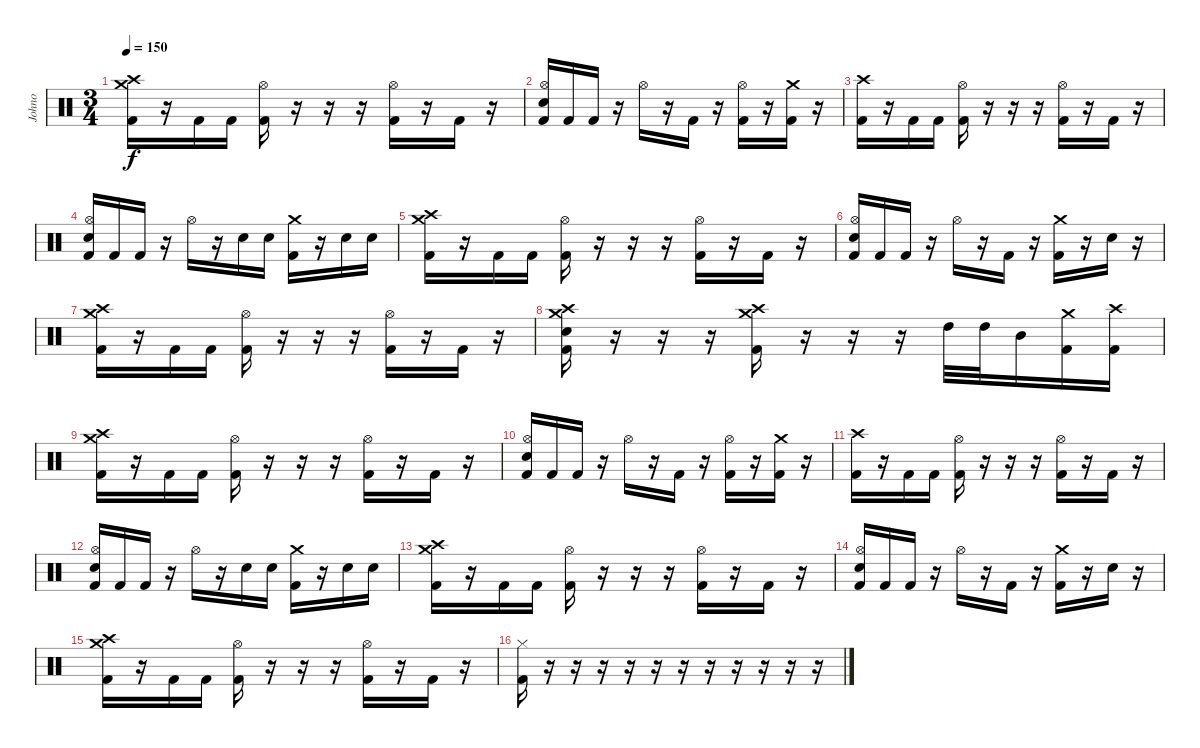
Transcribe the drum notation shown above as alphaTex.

\track ("Johno" "Johno") {instrument percussion}
\staff {score}
\articulation defaults
\ts (3 4)
\tempo 150
\clef neutral
\ks c
("Crash medium (hit)" "Crash high (hit)" "Kick (hit) 2").16{dy f} r.16 "Kick (hit) 2".16 "Kick (hit) 2".16 ("Hi-Hat (open)" "Kick (hit) 2").16 r.16 r.16 r.16 ("Hi-Hat (open)" "Kick (hit) 2").16 r.16 "Kick (hit) 2".16 r.16 |
("Hi-Hat (open)" "Electric Snare (hit)" "Kick (hit) 2").16 "Kick (hit) 2".16 "Kick (hit) 2".16 r.16 "Hi-Hat (open)".16 r.16 "Kick (hit) 2".16 r.16 ("Hi-Hat (open)" "Kick (hit) 2").16 r.16 ("Crash medium (hit)" "Kick (hit) 2").16 r.16 |
("Crash high (hit)" "Kick (hit) 2").16 r.16 "Kick (hit) 2".16 "Kick (hit) 2".16 ("Hi-Hat (open)" "Kick (hit) 2").16 r.16 r.16 r.16 ("Hi-Hat (open)" "Kick (hit) 2").16 r.16 "Kick (hit) 2".16 r.16 |
("Hi-Hat (open)" "Electric Snare (hit)" "Kick (hit) 2").16 "Kick (hit) 2".16 "Kick (hit) 2".16 r.16 "Hi-Hat (open)".16 r.16 "Electric Snare (hit)".16 "Electric Snare (hit)".16 ("Crash medium (hit)" "Kick (hit) 2").16 r.16 "Electric Snare (hit)".16 "Electric Snare (hit)".16 |
("Crash high (hit)" "Crash medium (hit)" "Kick (hit) 2").16 r.16 "Kick (hit) 2".16 "Kick (hit) 2".16 ("Hi-Hat (open)" "Kick (hit) 2").16 r.16 r.16 r.16 ("Hi-Hat (open)" "Kick (hit) 2").16 r.16 "Kick (hit) 2".16 r.16 |
("Hi-Hat (open)" "Electric Snare (hit)" "Kick (hit) 2").16 "Kick (hit) 2".16 "Kick (hit) 2".16 r.16 "Hi-Hat (open)".16 r.16 "Kick (hit) 2".16 r.16 ("Crash medium (hit)" "Kick (hit) 2").16 r.16 "Electric Snare (hit)".16 r.16 |
("Crash medium (hit)" "Crash high (hit)" "Kick (hit) 2").16 r.16 "Kick (hit) 2".16 "Kick (hit) 2".16 ("Hi-Hat (open)" "Kick (hit) 2").16 r.16 r.16 r.16 ("Hi-Hat (open)" "Kick (hit) 2").16 r.16 "Kick (hit) 2".16 r.16 |
("Crash high (hit)" "Crash medium (hit)" "Electric Snare (hit)" "Kick (hit) 2").16 r.16 r.16 r.16 ("Crash high (hit)" "Crash medium (hit)" "Kick (hit) 2").16 r.16 r.16 r.16 "High Tom (hit)".32 "High Tom (hit)".32 "Mid Tom (hit)".16 ("Crash medium (hit)" "Kick (hit) 2").16 ("Crash high (hit)" "Kick (hit) 2").16 |
("Crash medium (hit)" "Crash high (hit)" "Kick (hit) 2").16 r.16 "Kick (hit) 2".16 "Kick (hit) 2".16 ("Hi-Hat (open)" "Kick (hit) 2").16 r.16 r.16 r.16 ("Hi-Hat (open)" "Kick (hit) 2").16 r.16 "Kick (hit) 2".16 r.16 |
("Hi-Hat (open)" "Electric Snare (hit)" "Kick (hit) 2").16 "Kick (hit) 2".16 "Kick (hit) 2".16 r.16 "Hi-Hat (open)".16 r.16 "Kick (hit) 2".16 r.16 ("Hi-Hat (open)" "Kick (hit) 2").16 r.16 ("Crash medium (hit)" "Kick (hit) 2").16 r.16 |
("Crash high (hit)" "Kick (hit) 2").16 r.16 "Kick (hit) 2".16 "Kick (hit) 2".16 ("Hi-Hat (open)" "Kick (hit) 2").16 r.16 r.16 r.16 ("Hi-Hat (open)" "Kick (hit) 2").16 r.16 "Kick (hit) 2".16 r.16 |
("Hi-Hat (open)" "Electric Snare (hit)" "Kick (hit) 2").16 "Kick (hit) 2".16 "Kick (hit) 2".16 r.16 "Hi-Hat (open)".16 r.16 "Electric Snare (hit)".16 "Electric Snare (hit)".16 ("Crash medium (hit)" "Kick (hit) 2").16 r.16 "Electric Snare (hit)".16 "Electric Snare (hit)".16 |
("Crash high (hit)" "Crash medium (hit)" "Kick (hit) 2").16 r.16 "Kick (hit) 2".16 "Kick (hit) 2".16 ("Hi-Hat (open)" "Kick (hit) 2").16 r.16 r.16 r.16 ("Hi-Hat (open)" "Kick (hit) 2").16 r.16 "Kick (hit) 2".16 r.16 |
("Hi-Hat (open)" "Electric Snare (hit)" "Kick (hit) 2").16 "Kick (hit) 2".16 "Kick (hit) 2".16 r.16 "Hi-Hat (open)".16 r.16 "Kick (hit) 2".16 r.16 ("Crash medium (hit)" "Kick (hit) 2").16 r.16 "Electric Snare (hit)".16 r.16 |
("Crash medium (hit)" "Crash high (hit)" "Kick (hit) 2").16 r.16 "Kick (hit) 2".16 "Kick (hit) 2".16 ("Hi-Hat (open)" "Kick (hit) 2").16 r.16 r.16 r.16 ("Hi-Hat (open)" "Kick (hit) 2").16 r.16 "Kick (hit) 2".16 r.16 |
("Hi-Hat (closed)" "Kick (hit) 2").16 r.16 r.16 r.16 r.16 r.16 r.16 r.16 r.16 r.16 r.16 r.16
